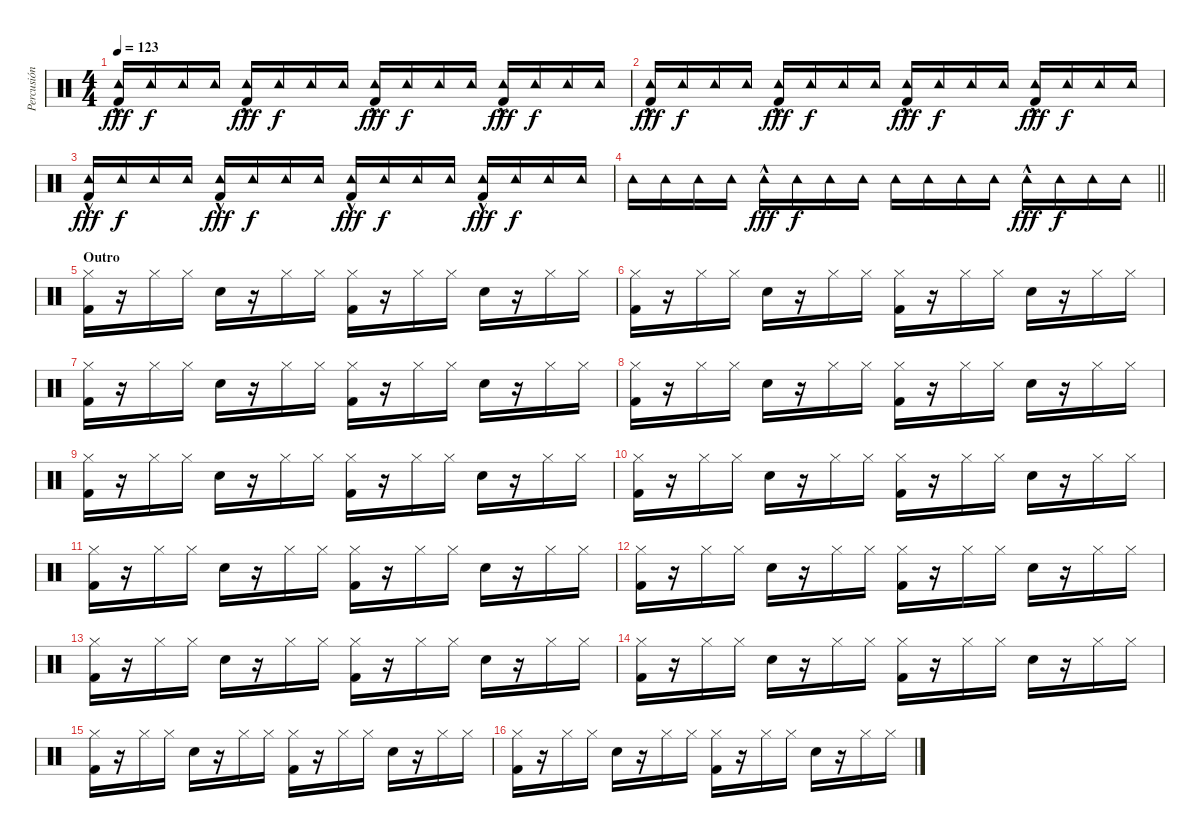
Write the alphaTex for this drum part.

\track ("Percusión" "Percusión") {instrument percussion}
\staff {score}
\articulation defaults
\ts (4 4)
\tempo 123
\clef neutral
\ks c
("Tambourine (hit)"{hac} "Kick (hit) 2").16{dy fff} "Tambourine (hit)".16{dy f} "Tambourine (hit)".16 "Tambourine (hit)".16 ("Tambourine (hit)"{hac} "Kick (hit) 2").16{dy fff} "Tambourine (hit)".16{dy f} "Tambourine (hit)".16 "Tambourine (hit)".16 ("Tambourine (hit)"{hac} "Kick (hit) 2").16{dy fff} "Tambourine (hit)".16{dy f} "Tambourine (hit)".16 "Tambourine (hit)".16 ("Tambourine (hit)"{hac} "Kick (hit) 2").16{dy fff} "Tambourine (hit)".16{dy f} "Tambourine (hit)".16 "Tambourine (hit)".16 |
("Tambourine (hit)"{hac} "Kick (hit) 2").16{dy fff} "Tambourine (hit)".16{dy f} "Tambourine (hit)".16 "Tambourine (hit)".16 ("Tambourine (hit)"{hac} "Kick (hit) 2").16{dy fff} "Tambourine (hit)".16{dy f} "Tambourine (hit)".16 "Tambourine (hit)".16 ("Tambourine (hit)"{hac} "Kick (hit) 2").16{dy fff} "Tambourine (hit)".16{dy f} "Tambourine (hit)".16 "Tambourine (hit)".16 ("Tambourine (hit)"{hac} "Kick (hit) 2").16{dy fff} "Tambourine (hit)".16{dy f} "Tambourine (hit)".16 "Tambourine (hit)".16 |
("Tambourine (hit)"{hac} "Kick (hit) 2").16{dy fff} "Tambourine (hit)".16{dy f} "Tambourine (hit)".16 "Tambourine (hit)".16 ("Tambourine (hit)"{hac} "Kick (hit) 2").16{dy fff} "Tambourine (hit)".16{dy f} "Tambourine (hit)".16 "Tambourine (hit)".16 ("Tambourine (hit)"{hac} "Kick (hit) 2").16{dy fff} "Tambourine (hit)".16{dy f} "Tambourine (hit)".16 "Tambourine (hit)".16 ("Tambourine (hit)"{hac} "Kick (hit) 2").16{dy fff} "Tambourine (hit)".16{dy f} "Tambourine (hit)".16 "Tambourine (hit)".16 |
\barLineRight lightlight "Tambourine (hit)".16 "Tambourine (hit)".16 "Tambourine (hit)".16 "Tambourine (hit)".16 "Tambourine (hit)"{hac}.16{dy fff} "Tambourine (hit)".16{dy f} "Tambourine (hit)".16 "Tambourine (hit)".16 "Tambourine (hit)".16 "Tambourine (hit)".16 "Tambourine (hit)".16 "Tambourine (hit)".16 "Tambourine (hit)"{hac}.16{dy fff} "Tambourine (hit)".16{dy f} "Tambourine (hit)".16 "Tambourine (hit)".16
|
\section ("" "Outro")
("Hi-Hat (closed)" "Kick (hit) 2").16 r.16 "Hi-Hat (closed)".16 "Hi-Hat (closed)".16 "Snare (hit) 2".16 r.16 "Hi-Hat (closed)".16 "Hi-Hat (closed)".16 ("Hi-Hat (closed)" "Kick (hit) 2").16 r.16 "Hi-Hat (closed)".16 "Hi-Hat (closed)".16 "Snare (hit) 2".16 r.16 "Hi-Hat (closed)".16 "Hi-Hat (closed)".16 |
("Hi-Hat (closed)" "Kick (hit) 2").16 r.16 "Hi-Hat (closed)".16 "Hi-Hat (closed)".16 "Snare (hit) 2".16 r.16 "Hi-Hat (closed)".16 "Hi-Hat (closed)".16 ("Hi-Hat (closed)" "Kick (hit) 2").16 r.16 "Hi-Hat (closed)".16 "Hi-Hat (closed)".16 "Snare (hit) 2".16 r.16 "Hi-Hat (closed)".16 "Hi-Hat (closed)".16 |
("Hi-Hat (closed)" "Kick (hit) 2").16 r.16 "Hi-Hat (closed)".16 "Hi-Hat (closed)".16 "Snare (hit) 2".16 r.16 "Hi-Hat (closed)".16 "Hi-Hat (closed)".16 ("Hi-Hat (closed)" "Kick (hit) 2").16 r.16 "Hi-Hat (closed)".16 "Hi-Hat (closed)".16 "Snare (hit) 2".16 r.16 "Hi-Hat (closed)".16 "Hi-Hat (closed)".16 |
("Hi-Hat (closed)" "Kick (hit) 2").16 r.16 "Hi-Hat (closed)".16 "Hi-Hat (closed)".16 "Snare (hit) 2".16 r.16 "Hi-Hat (closed)".16 "Hi-Hat (closed)".16 ("Hi-Hat (closed)" "Kick (hit) 2").16 r.16 "Hi-Hat (closed)".16 "Hi-Hat (closed)".16 "Snare (hit) 2".16 r.16 "Hi-Hat (closed)".16 "Hi-Hat (closed)".16 |
("Hi-Hat (closed)" "Kick (hit) 2").16 r.16 "Hi-Hat (closed)".16 "Hi-Hat (closed)".16 "Snare (hit) 2".16 r.16 "Hi-Hat (closed)".16 "Hi-Hat (closed)".16 ("Hi-Hat (closed)" "Kick (hit) 2").16 r.16 "Hi-Hat (closed)".16 "Hi-Hat (closed)".16 "Snare (hit) 2".16 r.16 "Hi-Hat (closed)".16 "Hi-Hat (closed)".16 |
("Hi-Hat (closed)" "Kick (hit) 2").16 r.16 "Hi-Hat (closed)".16 "Hi-Hat (closed)".16 "Snare (hit) 2".16 r.16 "Hi-Hat (closed)".16 "Hi-Hat (closed)".16 ("Hi-Hat (closed)" "Kick (hit) 2").16 r.16 "Hi-Hat (closed)".16 "Hi-Hat (closed)".16 "Snare (hit) 2".16 r.16 "Hi-Hat (closed)".16 "Hi-Hat (closed)".16 |
("Hi-Hat (closed)" "Kick (hit) 2").16 r.16 "Hi-Hat (closed)".16 "Hi-Hat (closed)".16 "Snare (hit) 2".16 r.16 "Hi-Hat (closed)".16 "Hi-Hat (closed)".16 ("Hi-Hat (closed)" "Kick (hit) 2").16 r.16 "Hi-Hat (closed)".16 "Hi-Hat (closed)".16 "Snare (hit) 2".16 r.16 "Hi-Hat (closed)".16 "Hi-Hat (closed)".16 |
("Hi-Hat (closed)" "Kick (hit) 2").16 r.16 "Hi-Hat (closed)".16 "Hi-Hat (closed)".16 "Snare (hit) 2".16 r.16 "Hi-Hat (closed)".16 "Hi-Hat (closed)".16 ("Hi-Hat (closed)" "Kick (hit) 2").16 r.16 "Hi-Hat (closed)".16 "Hi-Hat (closed)".16 "Snare (hit) 2".16 r.16 "Hi-Hat (closed)".16 "Hi-Hat (closed)".16 |
("Hi-Hat (closed)" "Kick (hit) 2").16 r.16 "Hi-Hat (closed)".16 "Hi-Hat (closed)".16 "Snare (hit) 2".16 r.16 "Hi-Hat (closed)".16 "Hi-Hat (closed)".16 ("Hi-Hat (closed)" "Kick (hit) 2").16 r.16 "Hi-Hat (closed)".16 "Hi-Hat (closed)".16 "Snare (hit) 2".16 r.16 "Hi-Hat (closed)".16 "Hi-Hat (closed)".16 |
("Hi-Hat (closed)" "Kick (hit) 2").16 r.16 "Hi-Hat (closed)".16 "Hi-Hat (closed)".16 "Snare (hit) 2".16 r.16 "Hi-Hat (closed)".16 "Hi-Hat (closed)".16 ("Hi-Hat (closed)" "Kick (hit) 2").16 r.16 "Hi-Hat (closed)".16 "Hi-Hat (closed)".16 "Snare (hit) 2".16 r.16 "Hi-Hat (closed)".16 "Hi-Hat (closed)".16 |
("Hi-Hat (closed)" "Kick (hit) 2").16 r.16 "Hi-Hat (closed)".16 "Hi-Hat (closed)".16 "Snare (hit) 2".16 r.16 "Hi-Hat (closed)".16 "Hi-Hat (closed)".16 ("Hi-Hat (closed)" "Kick (hit) 2").16 r.16 "Hi-Hat (closed)".16 "Hi-Hat (closed)".16 "Snare (hit) 2".16 r.16 "Hi-Hat (closed)".16 "Hi-Hat (closed)".16 |
("Hi-Hat (closed)" "Kick (hit) 2").16 r.16 "Hi-Hat (closed)".16 "Hi-Hat (closed)".16 "Snare (hit) 2".16 r.16 "Hi-Hat (closed)".16 "Hi-Hat (closed)".16 ("Hi-Hat (closed)" "Kick (hit) 2").16 r.16 "Hi-Hat (closed)".16 "Hi-Hat (closed)".16 "Snare (hit) 2".16 r.16 "Hi-Hat (closed)".16 "Hi-Hat (closed)".16
